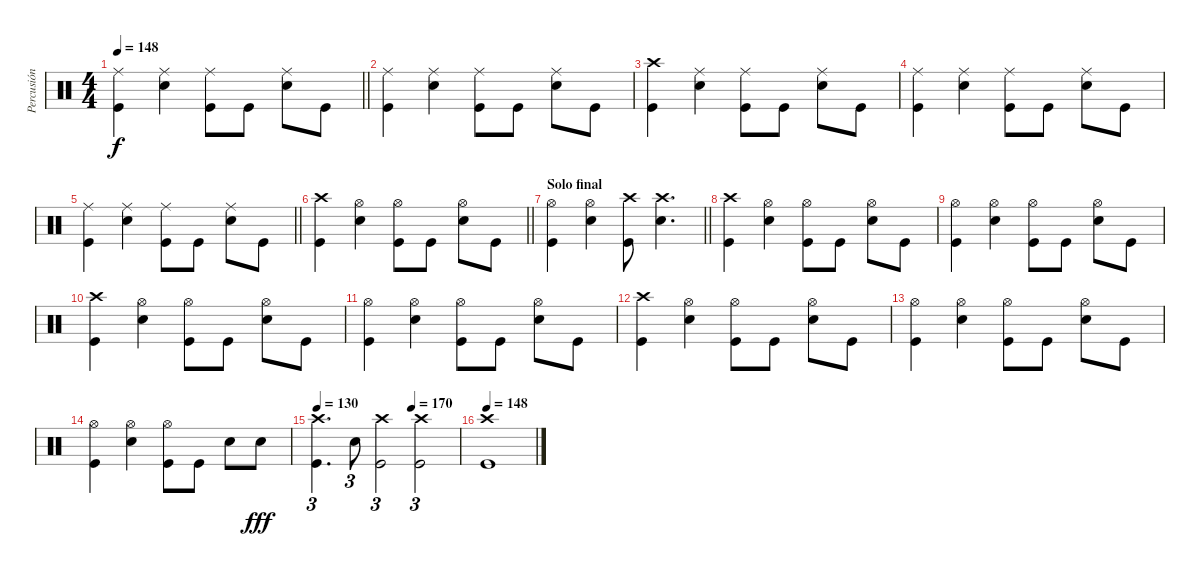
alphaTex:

\track ("Percusión" "Percusión") {instrument percussion}
\staff {score}
\articulation defaults
\ts (4 4)
\tempo 148
\clef neutral
\barLineRight lightlight
\ks c
("Ride (middle)" "Kick (hit)").4{dy f} ("Ride (middle)" "Electric Snare (hit)").4 ("Ride (middle)" "Kick (hit)").8 "Kick (hit)".8 ("Ride (middle)" "Electric Snare (hit)").8 "Kick (hit)".8 |
("Ride (middle)" "Kick (hit)").4 ("Ride (middle)" "Electric Snare (hit)").4 ("Ride (middle)" "Kick (hit)").8 "Kick (hit)".8 ("Ride (middle)" "Electric Snare (hit)").8 "Kick (hit)".8 |
("Crash high (hit)" "Kick (hit)").4 ("Ride (middle)" "Electric Snare (hit)").4 ("Ride (middle)" "Kick (hit)").8 "Kick (hit)".8 ("Ride (middle)" "Electric Snare (hit)").8 "Kick (hit)".8 |
("Ride (middle)" "Kick (hit)").4 ("Ride (middle)" "Electric Snare (hit)").4 ("Ride (middle)" "Kick (hit)").8 "Kick (hit)".8 ("Ride (middle)" "Electric Snare (hit)").8 "Kick (hit)".8 |
\barLineRight lightlight
("Ride (middle)" "Kick (hit)").4 ("Ride (middle)" "Electric Snare (hit)").4 ("Ride (middle)" "Kick (hit)").8 "Kick (hit)".8 ("Ride (middle)" "Electric Snare (hit)").8 "Kick (hit)".8 |
\barLineRight lightlight
("Crash high (hit)" "Kick (hit)").4 ("Hi-Hat (open)" "Electric Snare (hit)").4 ("Hi-Hat (open)" "Kick (hit)").8 "Kick (hit)".8 ("Hi-Hat (open)" "Electric Snare (hit)").8 "Kick (hit)".8 |
\section ("" "Solo final")
\barLineRight lightlight
("Hi-Hat (open)" "Kick (hit)").4 ("Hi-Hat (open)" "Electric Snare (hit)").4 ("Crash high (hit)" "Kick (hit)").8 ("Crash high (hit)" "Electric Snare (hit)").4{d} |
("Crash high (hit)" "Kick (hit)").4 ("Hi-Hat (open)" "Electric Snare (hit)").4 ("Hi-Hat (open)" "Kick (hit)").8 "Kick (hit)".8 ("Hi-Hat (open)" "Electric Snare (hit)").8 "Kick (hit)".8 |
("Hi-Hat (open)" "Kick (hit)").4 ("Hi-Hat (open)" "Electric Snare (hit)").4 ("Hi-Hat (open)" "Kick (hit)").8 "Kick (hit)".8 ("Hi-Hat (open)" "Electric Snare (hit)").8 "Kick (hit)".8 |
("Crash high (hit)" "Kick (hit)").4 ("Hi-Hat (open)" "Electric Snare (hit)").4 ("Hi-Hat (open)" "Kick (hit)").8 "Kick (hit)".8 ("Hi-Hat (open)" "Electric Snare (hit)").8 "Kick (hit)".8 |
("Hi-Hat (open)" "Kick (hit)").4 ("Hi-Hat (open)" "Electric Snare (hit)").4 ("Hi-Hat (open)" "Kick (hit)").8 "Kick (hit)".8 ("Hi-Hat (open)" "Electric Snare (hit)").8 "Kick (hit)".8 |
("Crash high (hit)" "Kick (hit)").4 ("Hi-Hat (open)" "Electric Snare (hit)").4 ("Hi-Hat (open)" "Kick (hit)").8 "Kick (hit)".8 ("Hi-Hat (open)" "Electric Snare (hit)").8 "Kick (hit)".8 |
("Hi-Hat (open)" "Kick (hit)").4 ("Hi-Hat (open)" "Electric Snare (hit)").4 ("Hi-Hat (open)" "Kick (hit)").8 "Kick (hit)".8 ("Hi-Hat (open)" "Electric Snare (hit)").8 "Kick (hit)".8 |
("Hi-Hat (open)" "Kick (hit)").4 ("Hi-Hat (open)" "Electric Snare (hit)").4 ("Hi-Hat (open)" "Kick (hit)").8 "Kick (hit)".8 "Electric Snare (hit)".8 "Electric Snare (hit)".8{dy fff} |
\tempo 130
\tempo (170 0.6666666666666666)
("Crash high (hit)" "Kick (hit)").4{d tu (3 2)} "Electric Snare (hit)".8{tu (3 2)} ("Crash high (hit)" "Kick (hit)").2{tu (3 2)} ("Crash high (hit)" "Kick (hit)").2{tu (3 2)} |
\tempo 148
("Crash high (hit)" "Kick (hit)").1
